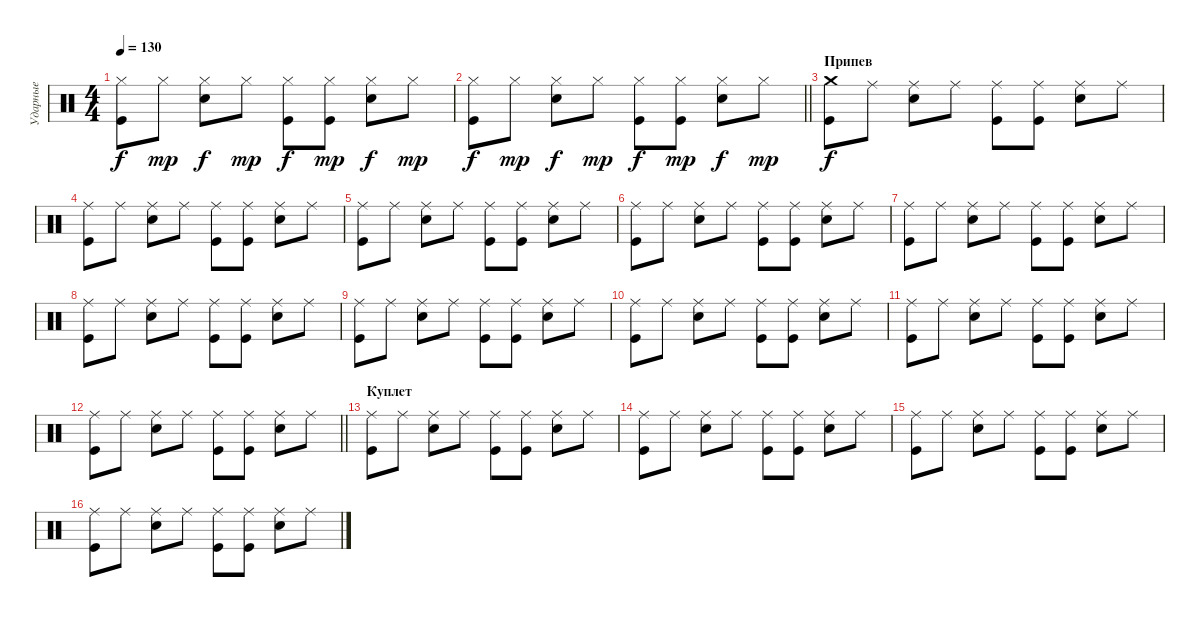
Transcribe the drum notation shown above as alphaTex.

\track ("Ударные" "Ударные") {instrument percussion}
\staff {score}
\articulation defaults
\ts (4 4)
\tempo 130
\clef neutral
\ks c
("Hi-Hat (closed)" "Kick (hit)").8{dy f} "Hi-Hat (closed)".8{dy mp} ("Hi-Hat (closed)" "Electric Snare (hit)").8{dy f} "Hi-Hat (closed)".8{dy mp} ("Hi-Hat (closed)" "Kick (hit)").8{dy f} ("Hi-Hat (closed)" "Kick (hit)").8{dy mp} ("Hi-Hat (closed)" "Electric Snare (hit)").8{dy f} "Hi-Hat (closed)".8{dy mp} |
\barLineRight lightlight
("Hi-Hat (closed)" "Kick (hit)").8{dy f} "Hi-Hat (closed)".8{dy mp} ("Hi-Hat (closed)" "Electric Snare (hit)").8{dy f} "Hi-Hat (closed)".8{dy mp} ("Hi-Hat (closed)" "Kick (hit)").8{dy f} ("Hi-Hat (closed)" "Kick (hit)").8{dy mp} ("Hi-Hat (closed)" "Electric Snare (hit)").8{dy f} "Hi-Hat (closed)".8{dy mp} |
\section ("" "Припев")
("Crash medium (hit)" "Kick (hit)").8{dy f} "Ride (middle)".8 ("Ride (middle)" "Electric Snare (hit)").8 "Ride (middle)".8 ("Ride (middle)" "Kick (hit)").8 ("Ride (middle)" "Kick (hit)").8 ("Ride (middle)" "Electric Snare (hit)").8 "Ride (middle)".8 |
("Ride (middle)" "Kick (hit)").8 "Ride (middle)".8 ("Ride (middle)" "Electric Snare (hit)").8 "Ride (middle)".8 ("Ride (middle)" "Kick (hit)").8 ("Ride (middle)" "Kick (hit)").8 ("Ride (middle)" "Electric Snare (hit)").8 "Ride (middle)".8 |
("Ride (middle)" "Kick (hit)").8 "Ride (middle)".8 ("Ride (middle)" "Electric Snare (hit)").8 "Ride (middle)".8 ("Ride (middle)" "Kick (hit)").8 ("Ride (middle)" "Kick (hit)").8 ("Ride (middle)" "Electric Snare (hit)").8 "Ride (middle)".8 |
("Ride (middle)" "Kick (hit)").8 "Ride (middle)".8 ("Ride (middle)" "Electric Snare (hit)").8 "Ride (middle)".8 ("Ride (middle)" "Kick (hit)").8 ("Ride (middle)" "Kick (hit)").8 ("Ride (middle)" "Electric Snare (hit)").8 "Ride (middle)".8 |
("Ride (middle)" "Kick (hit)").8 "Ride (middle)".8 ("Ride (middle)" "Electric Snare (hit)").8 "Ride (middle)".8 ("Ride (middle)" "Kick (hit)").8 ("Ride (middle)" "Kick (hit)").8 ("Ride (middle)" "Electric Snare (hit)").8 "Ride (middle)".8 |
("Ride (middle)" "Kick (hit)").8 "Ride (middle)".8 ("Ride (middle)" "Electric Snare (hit)").8 "Ride (middle)".8 ("Ride (middle)" "Kick (hit)").8 ("Ride (middle)" "Kick (hit)").8 ("Ride (middle)" "Electric Snare (hit)").8 "Ride (middle)".8 |
("Ride (middle)" "Kick (hit)").8 "Ride (middle)".8 ("Ride (middle)" "Electric Snare (hit)").8 "Ride (middle)".8 ("Ride (middle)" "Kick (hit)").8 ("Ride (middle)" "Kick (hit)").8 ("Ride (middle)" "Electric Snare (hit)").8 "Ride (middle)".8 |
("Ride (middle)" "Kick (hit)").8 "Ride (middle)".8 ("Ride (middle)" "Electric Snare (hit)").8 "Ride (middle)".8 ("Ride (middle)" "Kick (hit)").8 ("Ride (middle)" "Kick (hit)").8 ("Ride (middle)" "Electric Snare (hit)").8 "Ride (middle)".8 |
("Ride (middle)" "Kick (hit)").8 "Ride (middle)".8 ("Ride (middle)" "Electric Snare (hit)").8 "Ride (middle)".8 ("Ride (middle)" "Kick (hit)").8 ("Ride (middle)" "Kick (hit)").8 ("Ride (middle)" "Electric Snare (hit)").8 "Ride (middle)".8 |
\barLineRight lightlight
("Ride (middle)" "Kick (hit)").8 "Ride (middle)".8 ("Ride (middle)" "Electric Snare (hit)").8 "Ride (middle)".8 ("Ride (middle)" "Kick (hit)").8 ("Ride (middle)" "Kick (hit)").8 ("Ride (middle)" "Electric Snare (hit)").8 "Ride (middle)".8 |
\section ("" "Куплет")
("Ride (middle)" "Kick (hit)").8 "Ride (middle)".8 ("Ride (middle)" "Electric Snare (hit)").8 "Ride (middle)".8 ("Ride (middle)" "Kick (hit)").8 ("Ride (middle)" "Kick (hit)").8 ("Ride (middle)" "Electric Snare (hit)").8 "Ride (middle)".8 |
("Ride (middle)" "Kick (hit)").8 "Ride (middle)".8 ("Ride (middle)" "Electric Snare (hit)").8 "Ride (middle)".8 ("Ride (middle)" "Kick (hit)").8 ("Ride (middle)" "Kick (hit)").8 ("Ride (middle)" "Electric Snare (hit)").8 "Ride (middle)".8 |
("Ride (middle)" "Kick (hit)").8 "Ride (middle)".8 ("Ride (middle)" "Electric Snare (hit)").8 "Ride (middle)".8 ("Ride (middle)" "Kick (hit)").8 ("Ride (middle)" "Kick (hit)").8 ("Ride (middle)" "Electric Snare (hit)").8 "Ride (middle)".8 |
("Ride (middle)" "Kick (hit)").8 "Ride (middle)".8 ("Ride (middle)" "Electric Snare (hit)").8 "Ride (middle)".8 ("Ride (middle)" "Kick (hit)").8 ("Ride (middle)" "Kick (hit)").8 ("Ride (middle)" "Electric Snare (hit)").8 "Ride (middle)".8
